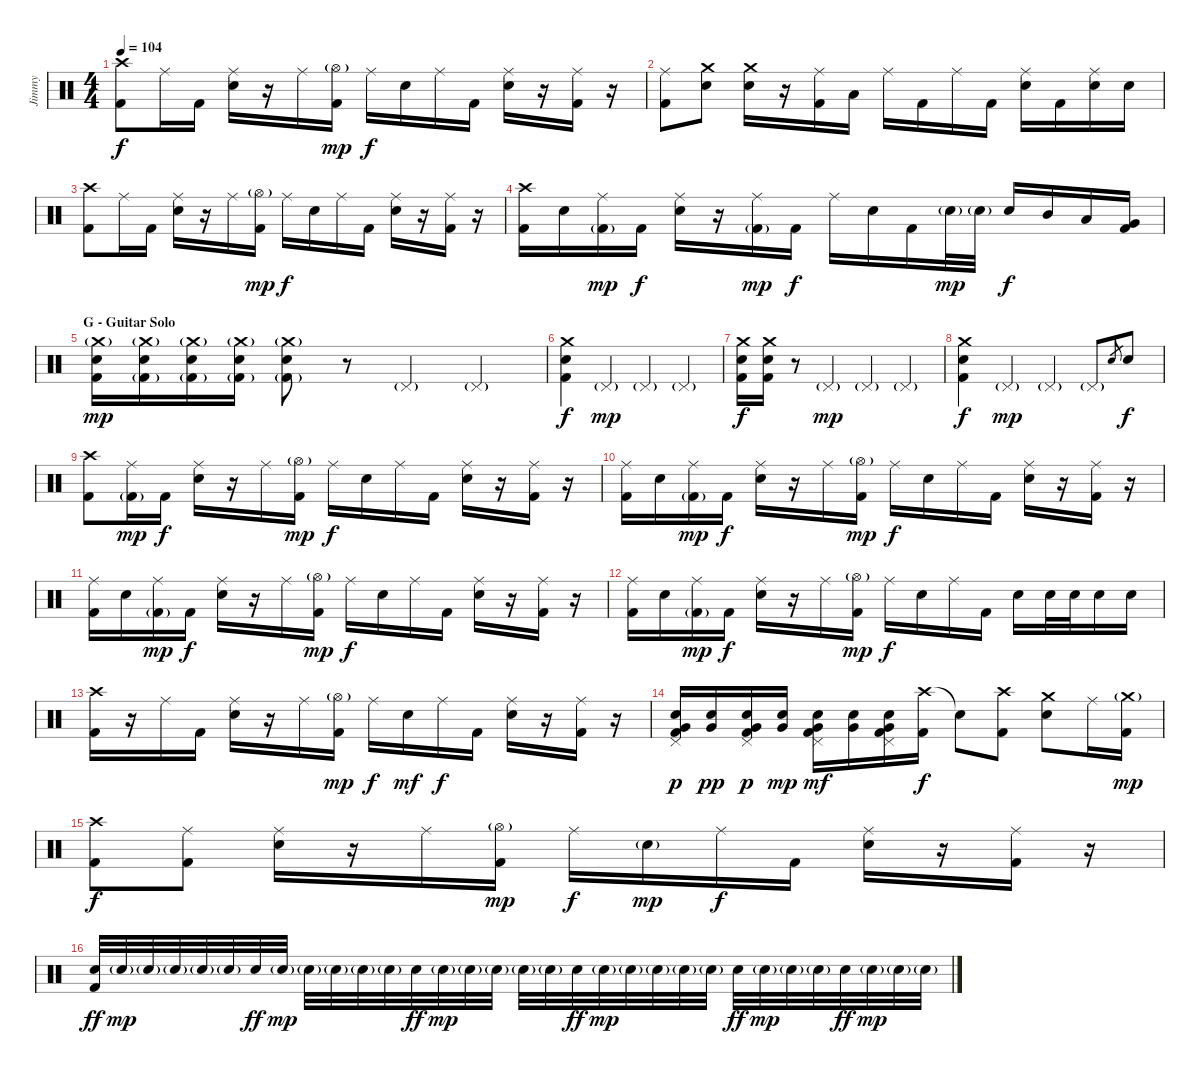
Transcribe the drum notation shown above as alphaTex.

\track ("Jimmy" "Jimmy") {instrument percussion}
\staff {score}
\articulation defaults
\ts (4 4)
\tempo 104
\clef neutral
\ks c
("Crash high (hit)" "Kick (hit) 2").8{dy f} "Ride (middle)".16 "Kick (hit) 2".16 ("Ride (middle)" "Electric Snare (hit)").16 r.16 "Ride (middle)".16 ("Hi-Hat (open)"{g} "Kick (hit) 2").16{dy mp} "Ride (middle)".16{dy f} "Electric Snare (hit)".16 "Ride (middle)".16 "Kick (hit) 2".16 ("Ride (middle)" "Electric Snare (hit)").16 r.16 ("Ride (middle)" "Kick (hit) 2").16 r.16 |
("Ride (middle)" "Kick (hit) 2").8 ("Crash medium (hit)" "Electric Snare (hit)").8 ("Crash medium (hit)" "Electric Snare (hit)").16 r.16 ("Ride (middle)" "Kick (hit) 2").16 "Low Tom (hit)".16 "Ride (middle)".16 "Kick (hit) 2".16 "Ride (middle)".16 "Kick (hit) 2".16 ("Ride (middle)" "Electric Snare (hit)").16 "Kick (hit) 2".16 ("Ride (middle)" "Electric Snare (hit)").16 "Electric Snare (hit)".16 |
("Crash high (hit)" "Kick (hit) 2").8 "Ride (middle)".16 "Kick (hit) 2".16 ("Ride (middle)" "Electric Snare (hit)").16 r.16 "Ride (middle)".16 ("Hi-Hat (open)"{g} "Kick (hit) 2").16{dy mp} "Ride (middle)".16{dy f} "Electric Snare (hit)".16 "Ride (middle)".16 "Kick (hit) 2".16 ("Ride (middle)" "Electric Snare (hit)").16 r.16 ("Ride (middle)" "Kick (hit) 2").16 r.16 |
("Crash high (hit)" "Kick (hit) 2").16 "Electric Snare (hit)".16 ("Ride (middle)" "Kick (hit) 2"{g}).16{dy mp} "Kick (hit) 2".16{dy f} ("Ride (middle)" "Electric Snare (hit)").16 r.16 ("Ride (middle)" "Kick (hit) 2"{g}).16{dy mp} "Kick (hit) 2".16{dy f} "Ride (middle)".16 "Electric Snare (hit)".16 "Kick (hit) 2".16 "Electric Snare (hit)"{g}.32{dy mp} "Electric Snare (hit)"{g}.32 "Electric Snare (hit)".16{dy f} "Mid Tom (hit)".16 "Low Tom (hit)".16 ("Very Low Tom (hit)" "Kick (hit) 2").16 |
\section ("" "G - Guitar Solo")
("Crash medium (hit)"{g} "Electric Snare (hit)" "Kick (hit) 2").16{dy mp} ("Crash medium (hit)"{g} "Electric Snare (hit)" "Kick (hit) 2"{g}).16 ("Crash medium (hit)"{g} "Electric Snare (hit)" "Kick (hit) 2"{g}).16 ("Crash medium (hit)"{g} "Electric Snare (hit)" "Kick (hit) 2"{g}).16 ("Crash medium (hit)"{g} "Electric Snare (hit)" "Kick (hit) 2"{g}).8 r.8 "Pedal Hi-Hat (hit)"{g}.4 "Pedal Hi-Hat (hit)"{g}.4 |
("Crash medium (hit)" "Electric Snare (hit)" "Kick (hit) 2").4{dy f} "Pedal Hi-Hat (hit)"{g}.4{dy mp} "Pedal Hi-Hat (hit)"{g}.4 "Pedal Hi-Hat (hit)"{g}.4 |
("Crash medium (hit)" "Electric Snare (hit)" "Kick (hit) 2").16{dy f} ("Crash medium (hit)" "Electric Snare (hit)" "Kick (hit) 2").16 r.8 "Pedal Hi-Hat (hit)"{g}.4{dy mp} "Pedal Hi-Hat (hit)"{g}.4 "Pedal Hi-Hat (hit)"{g}.4 |
("Crash medium (hit)" "Electric Snare (hit)" "Kick (hit) 2").4{dy f} "Pedal Hi-Hat (hit)"{g}.4{dy mp} "Pedal Hi-Hat (hit)"{g}.4 "Pedal Hi-Hat (hit)"{g}.8 "Electric Snare (hit)".8{gr} "Electric Snare (hit)".8{dy f} |
("Crash high (hit)" "Kick (hit) 2").8 ("Ride (middle)" "Kick (hit) 2"{g}).16{dy mp} "Kick (hit) 2".16{dy f} ("Ride (middle)" "Electric Snare (hit)").16 r.16 "Ride (middle)".16 ("Hi-Hat (open)"{g} "Kick (hit) 2").16{dy mp} "Ride (middle)".16{dy f} "Electric Snare (hit)".16 "Ride (middle)".16 "Kick (hit) 2".16 ("Ride (middle)" "Electric Snare (hit)").16 r.16 ("Ride (middle)" "Kick (hit) 2").16 r.16 |
("Ride (middle)" "Kick (hit) 2").16 "Electric Snare (hit)".16 ("Ride (middle)" "Kick (hit) 2"{g}).16{dy mp} "Kick (hit) 2".16{dy f} ("Ride (middle)" "Electric Snare (hit)").16 r.16 "Ride (middle)".16 ("Hi-Hat (open)"{g} "Kick (hit) 2").16{dy mp} "Ride (middle)".16{dy f} "Electric Snare (hit)".16 "Ride (middle)".16 "Kick (hit) 2".16 ("Ride (middle)" "Electric Snare (hit)").16 r.16 ("Ride (middle)" "Kick (hit) 2").16 r.16 |
("Ride (middle)" "Kick (hit) 2").16 "Electric Snare (hit)".16 ("Ride (middle)" "Kick (hit) 2"{g}).16{dy mp} "Kick (hit) 2".16{dy f} ("Ride (middle)" "Electric Snare (hit)").16 r.16 "Ride (middle)".16 ("Hi-Hat (open)"{g} "Kick (hit) 2").16{dy mp} "Ride (middle)".16{dy f} "Electric Snare (hit)".16 "Ride (middle)".16 "Kick (hit) 2".16 ("Ride (middle)" "Electric Snare (hit)").16 r.16 ("Ride (middle)" "Kick (hit) 2").16 r.16 |
("Ride (middle)" "Kick (hit) 2").16 "Electric Snare (hit)".16 ("Ride (middle)" "Kick (hit) 2"{g}).16{dy mp} "Kick (hit) 2".16{dy f} ("Ride (middle)" "Electric Snare (hit)").16 r.16 "Ride (middle)".16 ("Hi-Hat (open)"{g} "Kick (hit) 2").16{dy mp} "Ride (middle)".16{dy f} "Electric Snare (hit)".16 "Ride (middle)".16 "Kick (hit) 2".16 "Electric Snare (hit)".16 "Electric Snare (hit)".32 "Electric Snare (hit)".32 "Electric Snare (hit)".16 "Electric Snare (hit)".16 |
("Crash high (hit)" "Kick (hit) 2").16 r.16 "Ride (middle)".16 "Kick (hit) 2".16 ("Ride (middle)" "Electric Snare (hit)").16 r.16 "Ride (middle)".16 ("Hi-Hat (open)"{g} "Kick (hit) 2").16{dy mp} "Ride (middle)".16{dy f} "Electric Snare (hit)".16{dy mf} "Ride (middle)".16{dy f} "Kick (hit) 2".16 ("Ride (middle)" "Electric Snare (hit)").16 r.16 ("Ride (middle)" "Kick (hit) 2").16 r.16 |
("Pedal Hi-Hat (hit)" "Electric Snare (hit)" "Very Low Tom (hit)" "Kick (hit) 2").16{dy p} ("Electric Snare (hit)" "Very Low Tom (hit)").16{dy pp} ("Pedal Hi-Hat (hit)" "Electric Snare (hit)" "Very Low Tom (hit)" "Kick (hit) 2").16{dy p} ("Electric Snare (hit)" "Very Low Tom (hit)").16{dy mp} ("Pedal Hi-Hat (hit)" "Electric Snare (hit)" "Very Low Tom (hit)" "Kick (hit) 2").16{dy mf} ("Electric Snare (hit)" "Very Low Tom (hit)").16 ("Pedal Hi-Hat (hit)" "Electric Snare (hit)" "Very Low Tom (hit)" "Kick (hit) 2").16 ("Crash high (hit)" "Kick (hit) 2").16{dy f} "Snare (hit)"{t}.8 ("Crash high (hit)" "Kick (hit) 2").8 ("Crash medium (hit)" "Electric Snare (hit)").8 "Ride (middle)".16 ("Crash medium (hit)"{g} "Kick (hit) 2").16{dy mp} |
("Crash high (hit)" "Kick (hit) 2").8{dy f} ("Ride (middle)" "Kick (hit) 2").8 ("Ride (middle)" "Electric Snare (hit)").16 r.16 "Ride (middle)".16 ("Hi-Hat (open)"{g} "Kick (hit) 2").16{dy mp} "Ride (middle)".16{dy f} "Electric Snare (hit)"{g}.16{dy mp} "Ride (middle)".16{dy f} "Kick (hit) 2".16 ("Ride (middle)" "Electric Snare (hit)").16 r.16 ("Ride (middle)" "Kick (hit) 2").16 r.16 |
("Electric Snare (hit)" "Kick (hit) 2").32{dy ff} "Electric Snare (hit)"{g}.32{dy mp} "Electric Snare (hit)"{g}.32 "Electric Snare (hit)"{g}.32 "Electric Snare (hit)"{g}.32 "Electric Snare (hit)"{g}.32 "Electric Snare (hit)".32{dy ff} "Electric Snare (hit)"{g}.32{dy mp} "Electric Snare (hit)"{g}.32 "Electric Snare (hit)"{g}.32 "Electric Snare (hit)"{g}.32 "Electric Snare (hit)"{g}.32 "Electric Snare (hit)".32{dy ff} "Electric Snare (hit)"{g}.32{dy mp} "Electric Snare (hit)"{g}.32 "Electric Snare (hit)"{g}.32 "Electric Snare (hit)"{g}.32 "Electric Snare (hit)"{g}.32 "Electric Snare (hit)".32{dy ff} "Electric Snare (hit)"{g}.32{dy mp} "Electric Snare (hit)"{g}.32 "Electric Snare (hit)"{g}.32 "Electric Snare (hit)"{g}.32 "Electric Snare (hit)"{g}.32 "Electric Snare (hit)".32{dy ff} "Electric Snare (hit)"{g}.32{dy mp} "Electric Snare (hit)"{g}.32 "Electric Snare (hit)"{g}.32 "Electric Snare (hit)".32{dy ff} "Electric Snare (hit)"{g}.32{dy mp} "Electric Snare (hit)"{g}.32 "Electric Snare (hit)"{g}.32
